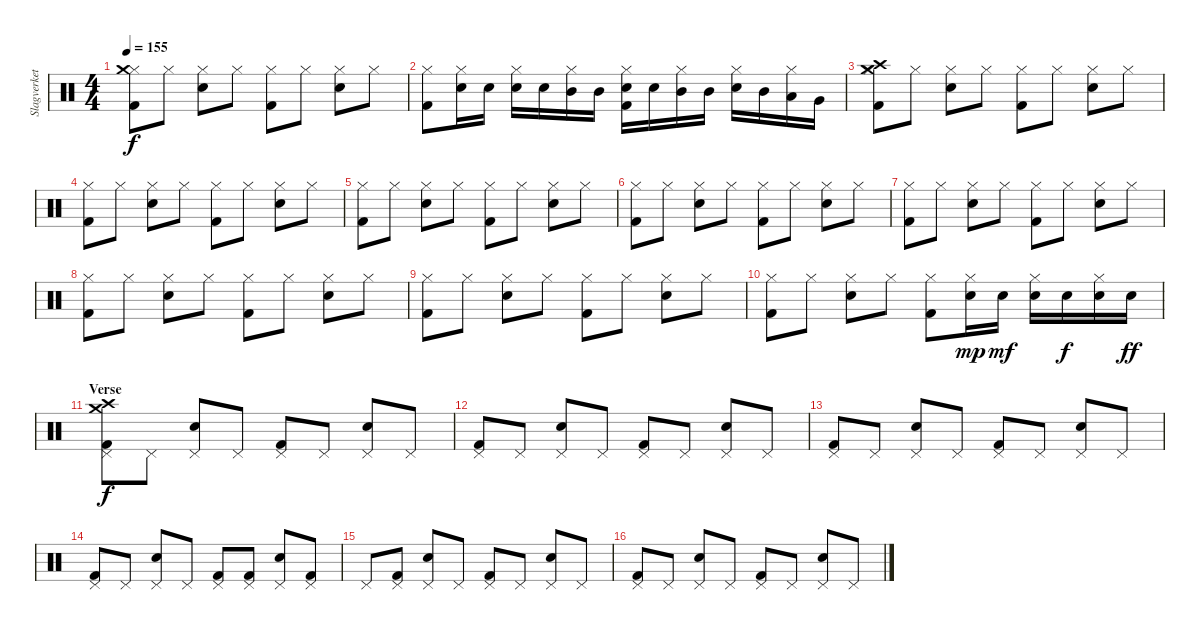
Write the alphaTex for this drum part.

\track ("Slagverket!" "Slagverket") {instrument percussion}
\staff {score}
\articulation defaults
\ts (4 4)
\tempo 155
\clef neutral
\ks c
("Hi-Hat (closed)" "Crash medium (hit)" "Kick (hit) 2").8{dy f} "Hi-Hat (closed)".8 ("Hi-Hat (closed)" "Electric Snare (hit)").8 "Hi-Hat (closed)".8 ("Hi-Hat (closed)" "Kick (hit) 2").8 "Hi-Hat (closed)".8 ("Hi-Hat (closed)" "Electric Snare (hit)").8 "Hi-Hat (closed)".8 |
("Hi-Hat (closed)" "Kick (hit) 2").8 ("Hi-Hat (closed)" "Electric Snare (hit)").16 "Electric Snare (hit)".16 ("Hi-Hat (closed)" "Electric Snare (hit)").16 "Electric Snare (hit)".16 ("Hi-Hat (closed)" "Mid Tom (hit)").16 "Mid Tom (hit)".16 ("Hi-Hat (closed)" "Electric Snare (hit)" "Kick (hit) 2").16 "Electric Snare (hit)".16 ("Hi-Hat (closed)" "Mid Tom (hit)").16 "Mid Tom (hit)".16 ("Hi-Hat (closed)" "Electric Snare (hit)").16 "Mid Tom (hit)".16 ("Hi-Hat (closed)" "Low Tom (hit)").16 "Very Low Tom (hit)".16 |
\section ("" "")
("Hi-Hat (closed)" "Crash medium (hit)" "Crash high (hit)" "Kick (hit) 2").8 "Hi-Hat (closed)".8 ("Hi-Hat (closed)" "Electric Snare (hit)").8 "Hi-Hat (closed)".8 ("Hi-Hat (closed)" "Kick (hit) 2").8 "Hi-Hat (closed)".8 ("Hi-Hat (closed)" "Electric Snare (hit)").8 "Hi-Hat (closed)".8 |
("Hi-Hat (closed)" "Kick (hit) 2").8 "Hi-Hat (closed)".8 ("Hi-Hat (closed)" "Electric Snare (hit)").8 "Hi-Hat (closed)".8 ("Hi-Hat (closed)" "Kick (hit) 2").8 "Hi-Hat (closed)".8 ("Hi-Hat (closed)" "Electric Snare (hit)").8 "Hi-Hat (closed)".8 |
("Hi-Hat (closed)" "Kick (hit) 2").8 "Hi-Hat (closed)".8 ("Hi-Hat (closed)" "Electric Snare (hit)").8 "Hi-Hat (closed)".8 ("Hi-Hat (closed)" "Kick (hit) 2").8 "Hi-Hat (closed)".8 ("Hi-Hat (closed)" "Electric Snare (hit)").8 "Hi-Hat (closed)".8 |
("Hi-Hat (closed)" "Kick (hit) 2").8 "Hi-Hat (closed)".8 ("Hi-Hat (closed)" "Electric Snare (hit)").8 "Hi-Hat (closed)".8 ("Hi-Hat (closed)" "Kick (hit) 2").8 "Hi-Hat (closed)".8 ("Hi-Hat (closed)" "Electric Snare (hit)").8 "Hi-Hat (closed)".8 |
("Hi-Hat (closed)" "Kick (hit) 2").8 "Hi-Hat (closed)".8 ("Hi-Hat (closed)" "Electric Snare (hit)").8 "Hi-Hat (closed)".8 ("Hi-Hat (closed)" "Kick (hit) 2").8 "Hi-Hat (closed)".8 ("Hi-Hat (closed)" "Electric Snare (hit)").8 "Hi-Hat (closed)".8 |
("Hi-Hat (closed)" "Kick (hit) 2").8 "Hi-Hat (closed)".8 ("Hi-Hat (closed)" "Electric Snare (hit)").8 "Hi-Hat (closed)".8 ("Hi-Hat (closed)" "Kick (hit) 2").8 "Hi-Hat (closed)".8 ("Hi-Hat (closed)" "Electric Snare (hit)").8 "Hi-Hat (closed)".8 |
("Hi-Hat (closed)" "Kick (hit) 2").8 "Hi-Hat (closed)".8 ("Hi-Hat (closed)" "Electric Snare (hit)").8 "Hi-Hat (closed)".8 ("Hi-Hat (closed)" "Kick (hit) 2").8 "Hi-Hat (closed)".8 ("Hi-Hat (closed)" "Electric Snare (hit)").8 "Hi-Hat (closed)".8 |
("Hi-Hat (closed)" "Kick (hit) 2").8 "Hi-Hat (closed)".8 ("Hi-Hat (closed)" "Electric Snare (hit)").8 "Hi-Hat (closed)".8 ("Hi-Hat (closed)" "Kick (hit) 2").8 ("Hi-Hat (closed)" "Electric Snare (hit)").16{dy mp} "Electric Snare (hit)".16{dy mf} ("Hi-Hat (closed)" "Electric Snare (hit)").16 "Electric Snare (hit)".16{dy f} ("Hi-Hat (closed)" "Electric Snare (hit)").16 "Electric Snare (hit)".16{dy ff} |
\section ("" "Verse")
("Pedal Hi-Hat (hit)" "Crash medium (hit)" "Crash high (hit)" "Kick (hit) 2").8{dy f} "Pedal Hi-Hat (hit)".8 ("Pedal Hi-Hat (hit)" "Electric Snare (hit)").8 "Pedal Hi-Hat (hit)".8 ("Pedal Hi-Hat (hit)" "Kick (hit) 2").8 "Pedal Hi-Hat (hit)".8 ("Pedal Hi-Hat (hit)" "Electric Snare (hit)").8 "Pedal Hi-Hat (hit)".8 |
("Pedal Hi-Hat (hit)" "Kick (hit) 2").8 "Pedal Hi-Hat (hit)".8 ("Pedal Hi-Hat (hit)" "Electric Snare (hit)").8 "Pedal Hi-Hat (hit)".8 ("Pedal Hi-Hat (hit)" "Kick (hit) 2").8 "Pedal Hi-Hat (hit)".8 ("Pedal Hi-Hat (hit)" "Electric Snare (hit)").8 "Pedal Hi-Hat (hit)".8 |
("Pedal Hi-Hat (hit)" "Kick (hit) 2").8 "Pedal Hi-Hat (hit)".8 ("Pedal Hi-Hat (hit)" "Electric Snare (hit)").8 "Pedal Hi-Hat (hit)".8 ("Pedal Hi-Hat (hit)" "Kick (hit) 2").8 "Pedal Hi-Hat (hit)".8 ("Pedal Hi-Hat (hit)" "Electric Snare (hit)").8 "Pedal Hi-Hat (hit)".8 |
("Pedal Hi-Hat (hit)" "Kick (hit) 2").8 "Pedal Hi-Hat (hit)".8 ("Pedal Hi-Hat (hit)" "Electric Snare (hit)").8 "Pedal Hi-Hat (hit)".8 ("Pedal Hi-Hat (hit)" "Kick (hit) 2").8 ("Pedal Hi-Hat (hit)" "Kick (hit) 2").8 ("Pedal Hi-Hat (hit)" "Electric Snare (hit)").8 ("Pedal Hi-Hat (hit)" "Kick (hit) 2").8 |
"Pedal Hi-Hat (hit)".8 ("Pedal Hi-Hat (hit)" "Kick (hit) 2").8 ("Pedal Hi-Hat (hit)" "Electric Snare (hit)").8 "Pedal Hi-Hat (hit)".8 ("Pedal Hi-Hat (hit)" "Kick (hit) 2").8 "Pedal Hi-Hat (hit)".8 ("Pedal Hi-Hat (hit)" "Electric Snare (hit)").8 "Pedal Hi-Hat (hit)".8 |
("Pedal Hi-Hat (hit)" "Kick (hit) 2").8 "Pedal Hi-Hat (hit)".8 ("Pedal Hi-Hat (hit)" "Electric Snare (hit)").8 "Pedal Hi-Hat (hit)".8 ("Pedal Hi-Hat (hit)" "Kick (hit) 2").8 "Pedal Hi-Hat (hit)".8 ("Pedal Hi-Hat (hit)" "Electric Snare (hit)").8 "Pedal Hi-Hat (hit)".8
